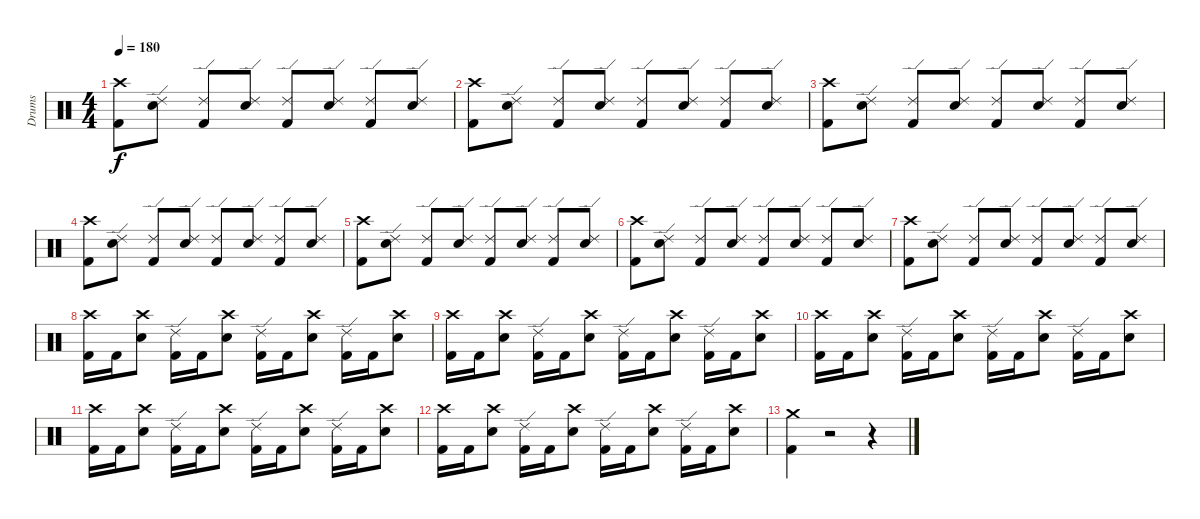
\track ("Drums" "Drums") {instrument percussion}
\staff {score}
\articulation defaults
\ts (4 4)
\tempo 180
\clef neutral
\ks c
("Kick (hit) 2" "Crash high (hit)").8{dy f} ("Electric Snare (hit)" "Ride (edge) 2").8 ("Kick (hit) 2" "Ride (edge) 2").8 ("Electric Snare (hit)" "Ride (edge) 2").8 ("Kick (hit) 2" "Ride (edge) 2").8 ("Electric Snare (hit)" "Ride (edge) 2").8 ("Kick (hit) 2" "Ride (edge) 2").8 ("Electric Snare (hit)" "Ride (edge) 2").8 |
("Kick (hit) 2" "Crash high (hit)").8 ("Electric Snare (hit)" "Ride (edge) 2").8 ("Kick (hit) 2" "Ride (edge) 2").8 ("Electric Snare (hit)" "Ride (edge) 2").8 ("Kick (hit) 2" "Ride (edge) 2").8 ("Electric Snare (hit)" "Ride (edge) 2").8 ("Kick (hit) 2" "Ride (edge) 2").8 ("Electric Snare (hit)" "Ride (edge) 2").8 |
("Kick (hit) 2" "Crash high (hit)").8 ("Electric Snare (hit)" "Ride (edge) 2").8 ("Kick (hit) 2" "Ride (edge) 2").8 ("Electric Snare (hit)" "Ride (edge) 2").8 ("Kick (hit) 2" "Ride (edge) 2").8 ("Electric Snare (hit)" "Ride (edge) 2").8 ("Kick (hit) 2" "Ride (edge) 2").8 ("Electric Snare (hit)" "Ride (edge) 2").8 |
("Kick (hit) 2" "Crash high (hit)").8 ("Electric Snare (hit)" "Ride (edge) 2").8 ("Kick (hit) 2" "Ride (edge) 2").8 ("Electric Snare (hit)" "Ride (edge) 2").8 ("Kick (hit) 2" "Ride (edge) 2").8 ("Electric Snare (hit)" "Ride (edge) 2").8 ("Kick (hit) 2" "Ride (edge) 2").8 ("Electric Snare (hit)" "Ride (edge) 2").8 |
("Kick (hit) 2" "Crash high (hit)").8 ("Electric Snare (hit)" "Ride (edge) 2").8 ("Kick (hit) 2" "Ride (edge) 2").8 ("Electric Snare (hit)" "Ride (edge) 2").8 ("Kick (hit) 2" "Ride (edge) 2").8 ("Electric Snare (hit)" "Ride (edge) 2").8 ("Kick (hit) 2" "Ride (edge) 2").8 ("Electric Snare (hit)" "Ride (edge) 2").8 |
("Kick (hit) 2" "Crash high (hit)").8 ("Electric Snare (hit)" "Ride (edge) 2").8 ("Kick (hit) 2" "Ride (edge) 2").8 ("Electric Snare (hit)" "Ride (edge) 2").8 ("Kick (hit) 2" "Ride (edge) 2").8 ("Electric Snare (hit)" "Ride (edge) 2").8 ("Kick (hit) 2" "Ride (edge) 2").8 ("Electric Snare (hit)" "Ride (edge) 2").8 |
("Kick (hit) 2" "Crash high (hit)").8 ("Electric Snare (hit)" "Ride (edge) 2").8 ("Kick (hit) 2" "Ride (edge) 2").8 ("Electric Snare (hit)" "Ride (edge) 2").8 ("Kick (hit) 2" "Ride (edge) 2").8 ("Electric Snare (hit)" "Ride (edge) 2").8 ("Kick (hit) 2" "Ride (edge) 2").8 ("Electric Snare (hit)" "Ride (edge) 2").8 |
("Kick (hit) 2" "Crash high (hit)").16 "Kick (hit) 2".16 ("Electric Snare (hit)" "Crash high (hit)").8 ("Kick (hit) 2" "Ride (edge) 2").16 "Kick (hit) 2".16 ("Electric Snare (hit)" "Crash high (hit)").8 ("Kick (hit) 2" "Ride (edge) 2").16 "Kick (hit) 2".16 ("Electric Snare (hit)" "Crash high (hit)").8 ("Kick (hit) 2" "Ride (edge) 2").16 "Kick (hit) 2".16 ("Electric Snare (hit)" "Crash high (hit)").8 |
("Kick (hit) 2" "Crash high (hit)").16 "Kick (hit) 2".16 ("Electric Snare (hit)" "Crash high (hit)").8 ("Kick (hit) 2" "Ride (edge) 2").16 "Kick (hit) 2".16 ("Electric Snare (hit)" "Crash high (hit)").8 ("Kick (hit) 2" "Ride (edge) 2").16 "Kick (hit) 2".16 ("Electric Snare (hit)" "Crash high (hit)").8 ("Kick (hit) 2" "Ride (edge) 2").16 "Kick (hit) 2".16 ("Electric Snare (hit)" "Crash high (hit)").8 |
("Kick (hit) 2" "Crash high (hit)").16 "Kick (hit) 2".16 ("Electric Snare (hit)" "Crash high (hit)").8 ("Kick (hit) 2" "Ride (edge) 2").16 "Kick (hit) 2".16 ("Electric Snare (hit)" "Crash high (hit)").8 ("Kick (hit) 2" "Ride (edge) 2").16 "Kick (hit) 2".16 ("Electric Snare (hit)" "Crash high (hit)").8 ("Kick (hit) 2" "Ride (edge) 2").16 "Kick (hit) 2".16 ("Electric Snare (hit)" "Crash high (hit)").8 |
("Kick (hit) 2" "Crash high (hit)").16 "Kick (hit) 2".16 ("Electric Snare (hit)" "Crash high (hit)").8 ("Kick (hit) 2" "Ride (edge) 2").16 "Kick (hit) 2".16 ("Electric Snare (hit)" "Crash high (hit)").8 ("Kick (hit) 2" "Ride (edge) 2").16 "Kick (hit) 2".16 ("Electric Snare (hit)" "Crash high (hit)").8 ("Kick (hit) 2" "Ride (edge) 2").16 "Kick (hit) 2".16 ("Electric Snare (hit)" "Crash high (hit)").8 |
("Kick (hit) 2" "Crash high (hit)").16 "Kick (hit) 2".16 ("Electric Snare (hit)" "Crash high (hit)").8 ("Kick (hit) 2" "Ride (edge) 2").16 "Kick (hit) 2".16 ("Electric Snare (hit)" "Crash high (hit)").8 ("Kick (hit) 2" "Ride (edge) 2").16 "Kick (hit) 2".16 ("Electric Snare (hit)" "Crash high (hit)").8 ("Kick (hit) 2" "Ride (edge) 2").16 "Kick (hit) 2".16 ("Electric Snare (hit)" "Crash high (hit)").8 |
("Crash medium (hit)" "Kick (hit) 2").4 r.2 r.4
